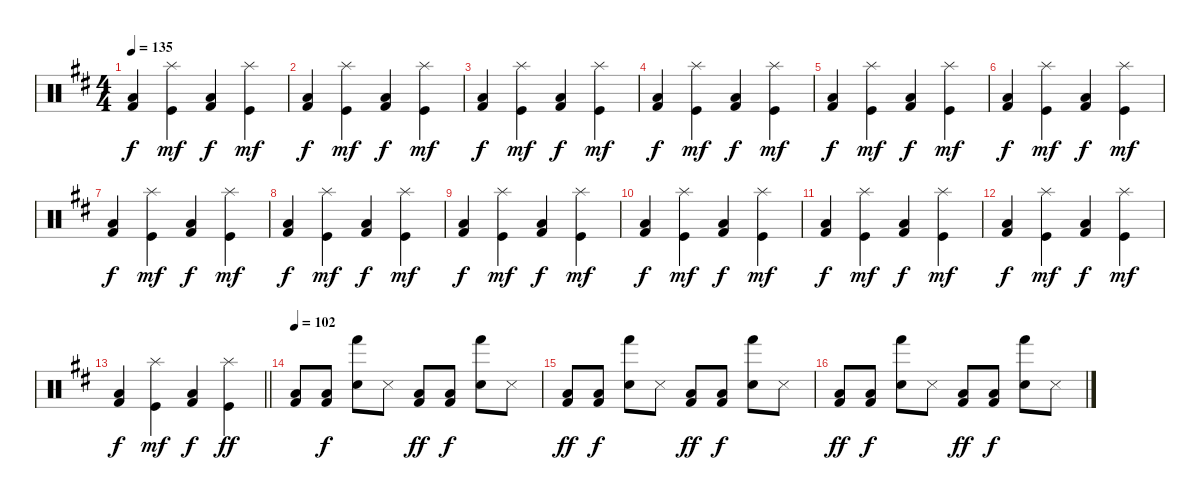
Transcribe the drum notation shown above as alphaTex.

\track "" {instrument percussion}
\staff {score}
\articulation defaults
\ts (4 4)
\tempo 135
\clef neutral
\ks d
("Kick (hit) 2" "Low Floor Tom (hit)").4{dy f} ("Splash (hit)" "Kick (hit)").4{dy mf} ("Kick (hit) 2" "Low Floor Tom (hit)").4{dy f} ("Splash (hit)" "Kick (hit)").4{dy mf} |
("Kick (hit) 2" "Low Floor Tom (hit)").4{dy f} ("Splash (hit)" "Kick (hit)").4{dy mf} ("Kick (hit) 2" "Low Floor Tom (hit)").4{dy f} ("Splash (hit)" "Kick (hit)").4{dy mf} |
("Kick (hit) 2" "Low Floor Tom (hit)").4{dy f} ("Splash (hit)" "Kick (hit)").4{dy mf} ("Kick (hit) 2" "Low Floor Tom (hit)").4{dy f} ("Splash (hit)" "Kick (hit)").4{dy mf} |
("Kick (hit) 2" "Low Floor Tom (hit)").4{dy f} ("Splash (hit)" "Kick (hit)").4{dy mf} ("Kick (hit) 2" "Low Floor Tom (hit)").4{dy f} ("Splash (hit)" "Kick (hit)").4{dy mf} |
("Kick (hit) 2" "Low Floor Tom (hit)").4{dy f} ("Splash (hit)" "Kick (hit)").4{dy mf} ("Kick (hit) 2" "Low Floor Tom (hit)").4{dy f} ("Splash (hit)" "Kick (hit)").4{dy mf} |
("Kick (hit) 2" "Low Floor Tom (hit)").4{dy f} ("Splash (hit)" "Kick (hit)").4{dy mf} ("Kick (hit) 2" "Low Floor Tom (hit)").4{dy f} ("Splash (hit)" "Kick (hit)").4{dy mf} |
("Kick (hit) 2" "Low Floor Tom (hit)").4{dy f} ("Splash (hit)" "Kick (hit)").4{dy mf} ("Kick (hit) 2" "Low Floor Tom (hit)").4{dy f} ("Splash (hit)" "Kick (hit)").4{dy mf} |
("Kick (hit) 2" "Low Floor Tom (hit)").4{dy f} ("Splash (hit)" "Kick (hit)").4{dy mf} ("Kick (hit) 2" "Low Floor Tom (hit)").4{dy f} ("Splash (hit)" "Kick (hit)").4{dy mf} |
("Kick (hit) 2" "Low Floor Tom (hit)").4{dy f} ("Splash (hit)" "Kick (hit)").4{dy mf} ("Kick (hit) 2" "Low Floor Tom (hit)").4{dy f} ("Splash (hit)" "Kick (hit)").4{dy mf} |
("Kick (hit) 2" "Low Floor Tom (hit)").4{dy f} ("Splash (hit)" "Kick (hit)").4{dy mf} ("Kick (hit) 2" "Low Floor Tom (hit)").4{dy f} ("Splash (hit)" "Kick (hit)").4{dy mf} |
("Kick (hit) 2" "Low Floor Tom (hit)").4{dy f} ("Splash (hit)" "Kick (hit)").4{dy mf} ("Kick (hit) 2" "Low Floor Tom (hit)").4{dy f} ("Splash (hit)" "Kick (hit)").4{dy mf} |
("Kick (hit) 2" "Low Floor Tom (hit)").4{dy f} ("Splash (hit)" "Kick (hit)").4{dy mf} ("Kick (hit) 2" "Low Floor Tom (hit)").4{dy f} ("Splash (hit)" "Kick (hit)").4{dy mf} |
\barLineRight lightlight
("Kick (hit) 2" "Low Floor Tom (hit)").4{dy f} ("Splash (hit)" "Kick (hit)").4{dy mf} ("Kick (hit) 2" "Low Floor Tom (hit)").4{dy f} ("Splash (hit)" "Kick (hit)").4{dy ff} |
\section ("" "")
\tempo 102
("Kick (hit) 2" "Low Floor Tom (hit)").8 ("Kick (hit) 2" "Low Floor Tom (hit)").8{dy f} ("Electric Snare (hit)" "Hand (hit)").8 "Snare (side stick) 3".8 ("Kick (hit) 2" "Low Floor Tom (hit)").8{dy ff} ("Kick (hit) 2" "Low Floor Tom (hit)").8{dy f} ("Electric Snare (hit)" "Hand (hit)").8 "Snare (side stick) 3".8 |
("Kick (hit) 2" "Low Floor Tom (hit)").8{dy ff} ("Kick (hit) 2" "Low Floor Tom (hit)").8{dy f} ("Electric Snare (hit)" "Hand (hit)").8 "Snare (side stick) 3".8 ("Kick (hit) 2" "Low Floor Tom (hit)").8{dy ff} ("Kick (hit) 2" "Low Floor Tom (hit)").8{dy f} ("Electric Snare (hit)" "Hand (hit)").8 "Snare (side stick) 3".8 |
("Kick (hit) 2" "Low Floor Tom (hit)").8{dy ff} ("Kick (hit) 2" "Low Floor Tom (hit)").8{dy f} ("Electric Snare (hit)" "Hand (hit)").8 "Snare (side stick) 3".8 ("Kick (hit) 2" "Low Floor Tom (hit)").8{dy ff} ("Kick (hit) 2" "Low Floor Tom (hit)").8{dy f} ("Electric Snare (hit)" "Hand (hit)").8 "Snare (side stick) 3".8
